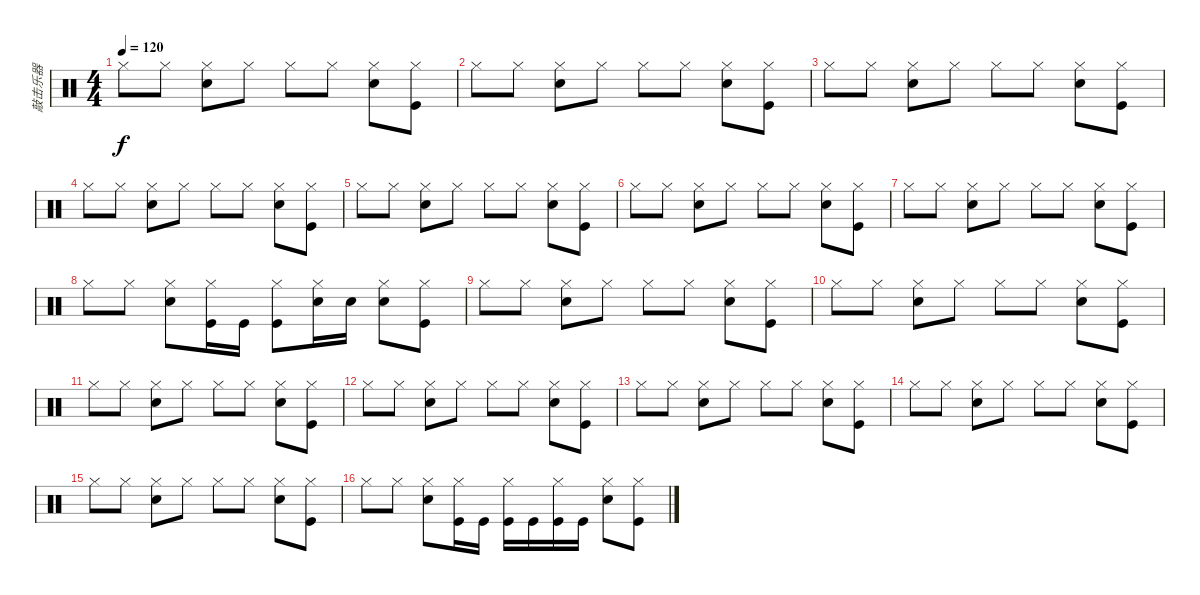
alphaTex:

\track ("敲击乐器" "敲击乐器") {instrument percussion}
\staff {score}
\articulation defaults
\ts (4 4)
\tempo 120
\clef neutral
\ks c "Hi-Hat (closed)".8{dy f} "Hi-Hat (closed)".8
("Hi-Hat (closed)" "Snare (hit) 2").8 "Hi-Hat (closed)".8 "Hi-Hat (closed)".8 "Hi-Hat (closed)".8 ("Hi-Hat (closed)" "Snare (hit) 2").8 ("Hi-Hat (closed)" "Kick (hit)").8 |
"Hi-Hat (closed)".8 "Hi-Hat (closed)".8 ("Hi-Hat (closed)" "Snare (hit) 2").8 "Hi-Hat (closed)".8 "Hi-Hat (closed)".8 "Hi-Hat (closed)".8 ("Hi-Hat (closed)" "Snare (hit) 2").8 ("Hi-Hat (closed)" "Kick (hit)").8 |
"Hi-Hat (closed)".8 "Hi-Hat (closed)".8 ("Hi-Hat (closed)" "Snare (hit) 2").8 "Hi-Hat (closed)".8 "Hi-Hat (closed)".8 "Hi-Hat (closed)".8 ("Hi-Hat (closed)" "Snare (hit) 2").8 ("Hi-Hat (closed)" "Kick (hit)").8 |
"Hi-Hat (closed)".8 "Hi-Hat (closed)".8 ("Hi-Hat (closed)" "Snare (hit) 2").8 "Hi-Hat (closed)".8 "Hi-Hat (closed)".8 "Hi-Hat (closed)".8 ("Hi-Hat (closed)" "Snare (hit) 2").8 ("Hi-Hat (closed)" "Kick (hit)").8 |
"Hi-Hat (closed)".8 "Hi-Hat (closed)".8 ("Hi-Hat (closed)" "Snare (hit) 2").8 "Hi-Hat (closed)".8 "Hi-Hat (closed)".8 "Hi-Hat (closed)".8 ("Hi-Hat (closed)" "Snare (hit) 2").8 ("Hi-Hat (closed)" "Kick (hit)").8 |
"Hi-Hat (closed)".8 "Hi-Hat (closed)".8 ("Hi-Hat (closed)" "Snare (hit) 2").8 "Hi-Hat (closed)".8 "Hi-Hat (closed)".8 "Hi-Hat (closed)".8 ("Hi-Hat (closed)" "Snare (hit) 2").8 ("Hi-Hat (closed)" "Kick (hit)").8 |
"Hi-Hat (closed)".8 "Hi-Hat (closed)".8 ("Hi-Hat (closed)" "Snare (hit) 2").8 "Hi-Hat (closed)".8 "Hi-Hat (closed)".8 "Hi-Hat (closed)".8 ("Hi-Hat (closed)" "Snare (hit) 2").8 ("Hi-Hat (closed)" "Kick (hit)").8 |
"Hi-Hat (closed)".8 "Hi-Hat (closed)".8 ("Hi-Hat (closed)" "Snare (hit) 2").8 ("Hi-Hat (closed)" "Kick (hit)").16 "Kick (hit)".16 ("Hi-Hat (closed)" "Kick (hit)").8 ("Hi-Hat (closed)" "Snare (hit) 2").16 "Snare (hit) 2".16 ("Hi-Hat (closed)" "Snare (hit) 2").8 ("Hi-Hat (closed)" "Kick (hit)").8 |
"Hi-Hat (closed)".8 "Hi-Hat (closed)".8 ("Hi-Hat (closed)" "Snare (hit) 2").8 "Hi-Hat (closed)".8 "Hi-Hat (closed)".8 "Hi-Hat (closed)".8 ("Hi-Hat (closed)" "Snare (hit) 2").8 ("Hi-Hat (closed)" "Kick (hit)").8 |
"Hi-Hat (closed)".8 "Hi-Hat (closed)".8 ("Hi-Hat (closed)" "Snare (hit) 2").8 "Hi-Hat (closed)".8 "Hi-Hat (closed)".8 "Hi-Hat (closed)".8 ("Hi-Hat (closed)" "Snare (hit) 2").8 ("Hi-Hat (closed)" "Kick (hit)").8 |
"Hi-Hat (closed)".8 "Hi-Hat (closed)".8 ("Hi-Hat (closed)" "Snare (hit) 2").8 "Hi-Hat (closed)".8 "Hi-Hat (closed)".8 "Hi-Hat (closed)".8 ("Hi-Hat (closed)" "Snare (hit) 2").8 ("Hi-Hat (closed)" "Kick (hit)").8 |
"Hi-Hat (closed)".8 "Hi-Hat (closed)".8 ("Hi-Hat (closed)" "Snare (hit) 2").8 "Hi-Hat (closed)".8 "Hi-Hat (closed)".8 "Hi-Hat (closed)".8 ("Hi-Hat (closed)" "Snare (hit) 2").8 ("Hi-Hat (closed)" "Kick (hit)").8 |
"Hi-Hat (closed)".8 "Hi-Hat (closed)".8 ("Hi-Hat (closed)" "Snare (hit) 2").8 "Hi-Hat (closed)".8 "Hi-Hat (closed)".8 "Hi-Hat (closed)".8 ("Hi-Hat (closed)" "Snare (hit) 2").8 ("Hi-Hat (closed)" "Kick (hit)").8 |
"Hi-Hat (closed)".8 "Hi-Hat (closed)".8 ("Hi-Hat (closed)" "Snare (hit) 2").8 "Hi-Hat (closed)".8 "Hi-Hat (closed)".8 "Hi-Hat (closed)".8 ("Hi-Hat (closed)" "Snare (hit) 2").8 ("Hi-Hat (closed)" "Kick (hit)").8 |
"Hi-Hat (closed)".8 "Hi-Hat (closed)".8 ("Hi-Hat (closed)" "Snare (hit) 2").8 "Hi-Hat (closed)".8 "Hi-Hat (closed)".8 "Hi-Hat (closed)".8 ("Hi-Hat (closed)" "Snare (hit) 2").8 ("Hi-Hat (closed)" "Kick (hit)").8 |
"Hi-Hat (closed)".8 "Hi-Hat (closed)".8 ("Hi-Hat (closed)" "Snare (hit) 2").8 ("Hi-Hat (closed)" "Kick (hit)").16 "Kick (hit)".16 ("Hi-Hat (closed)" "Kick (hit)").16 "Kick (hit)".16 ("Hi-Hat (closed)" "Kick (hit)").16 "Kick (hit)".16 ("Hi-Hat (closed)" "Snare (hit) 2").8 ("Hi-Hat (closed)" "Kick (hit)").8
